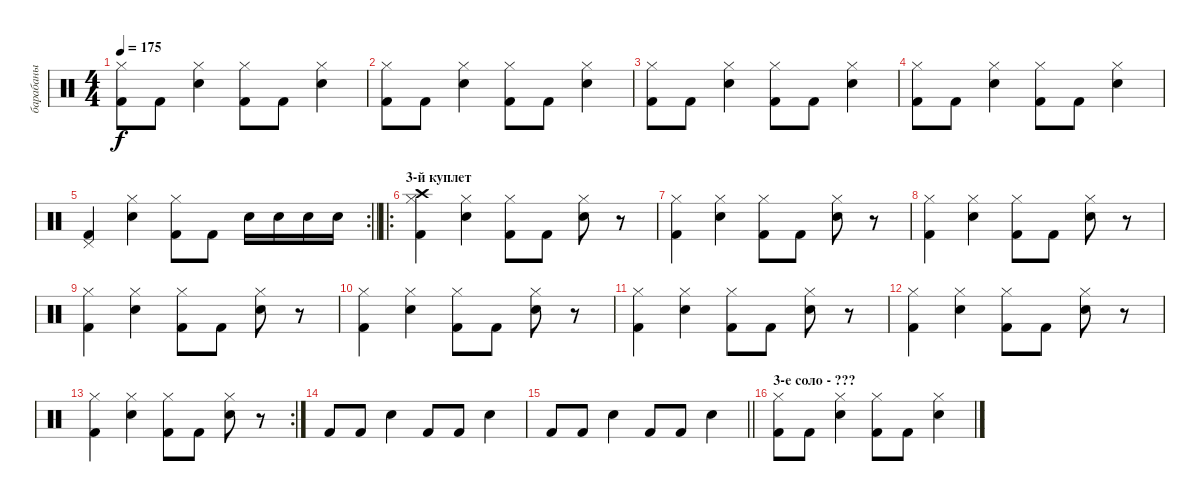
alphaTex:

\track ("барабаны" "барабаны") {instrument percussion}
\staff {score}
\articulation defaults
\ts (4 4)
\tempo 175
\clef neutral
\ks c
("Hi-Hat (closed)" "Kick (hit) 2").8{dy f} "Kick (hit) 2".8 ("Hi-Hat (closed)" "Snare (hit) 2").4 ("Hi-Hat (closed)" "Kick (hit) 2").8 "Kick (hit) 2".8 ("Hi-Hat (closed)" "Snare (hit) 2").4 |
("Hi-Hat (closed)" "Kick (hit) 2").8 "Kick (hit) 2".8 ("Hi-Hat (closed)" "Snare (hit) 2").4 ("Hi-Hat (closed)" "Kick (hit) 2").8 "Kick (hit) 2".8 ("Hi-Hat (closed)" "Snare (hit) 2").4 |
("Hi-Hat (closed)" "Kick (hit) 2").8 "Kick (hit) 2".8 ("Hi-Hat (closed)" "Snare (hit) 2").4 ("Hi-Hat (closed)" "Kick (hit) 2").8 "Kick (hit) 2".8 ("Hi-Hat (closed)" "Snare (hit) 2").4 |
("Hi-Hat (closed)" "Kick (hit) 2").8 "Kick (hit) 2".8 ("Hi-Hat (closed)" "Snare (hit) 2").4 ("Hi-Hat (closed)" "Kick (hit) 2").8 "Kick (hit) 2".8 ("Hi-Hat (closed)" "Snare (hit) 2").4 |
\rc 2
\barLineRight lightlight
("Pedal Hi-Hat (hit)" "Kick (hit) 2").4 ("Hi-Hat (closed)" "Snare (hit) 2").4 ("Hi-Hat (closed)" "Kick (hit) 2").8 "Kick (hit) 2".8 "Snare (hit) 2".16 "Snare (hit) 2".16 "Snare (hit) 2".16 "Snare (hit) 2".16 |
\ro
\section ("" "3-й куплет")
("Crash high (hit)" "Hi-Hat (closed)" "Kick (hit) 2").4 ("Hi-Hat (closed)" "Snare (hit) 2").4 ("Hi-Hat (closed)" "Kick (hit) 2").8 "Kick (hit) 2".8 ("Hi-Hat (closed)" "Snare (hit) 2").8 r.8 |
("Hi-Hat (closed)" "Kick (hit) 2").4 ("Hi-Hat (closed)" "Snare (hit) 2").4 ("Hi-Hat (closed)" "Kick (hit) 2").8 "Kick (hit) 2".8 ("Hi-Hat (closed)" "Snare (hit) 2").8 r.8 |
("Hi-Hat (closed)" "Kick (hit) 2").4 ("Hi-Hat (closed)" "Snare (hit) 2").4 ("Hi-Hat (closed)" "Kick (hit) 2").8 "Kick (hit) 2".8 ("Hi-Hat (closed)" "Snare (hit) 2").8 r.8 |
("Hi-Hat (closed)" "Kick (hit) 2").4 ("Hi-Hat (closed)" "Snare (hit) 2").4 ("Hi-Hat (closed)" "Kick (hit) 2").8 "Kick (hit) 2".8 ("Hi-Hat (closed)" "Snare (hit) 2").8 r.8 |
("Hi-Hat (closed)" "Kick (hit) 2").4 ("Hi-Hat (closed)" "Snare (hit) 2").4 ("Hi-Hat (closed)" "Kick (hit) 2").8 "Kick (hit) 2".8 ("Hi-Hat (closed)" "Snare (hit) 2").8 r.8 |
("Hi-Hat (closed)" "Kick (hit) 2").4 ("Hi-Hat (closed)" "Snare (hit) 2").4 ("Hi-Hat (closed)" "Kick (hit) 2").8 "Kick (hit) 2".8 ("Hi-Hat (closed)" "Snare (hit) 2").8 r.8 |
("Hi-Hat (closed)" "Kick (hit) 2").4 ("Hi-Hat (closed)" "Snare (hit) 2").4 ("Hi-Hat (closed)" "Kick (hit) 2").8 "Kick (hit) 2".8 ("Hi-Hat (closed)" "Snare (hit) 2").8 r.8 |
\rc 2
("Hi-Hat (closed)" "Kick (hit) 2").4 ("Hi-Hat (closed)" "Snare (hit) 2").4 ("Hi-Hat (closed)" "Kick (hit) 2").8 "Kick (hit) 2".8 ("Hi-Hat (closed)" "Snare (hit) 2").8 r.8 |
"Kick (hit) 2".8 "Kick (hit) 2".8 "Snare (hit) 2".4 "Kick (hit) 2".8 "Kick (hit) 2".8 "Snare (hit) 2".4 |
\barLineRight lightlight "Kick (hit) 2".8 "Kick (hit) 2".8 "Snare (hit) 2".4 "Kick (hit) 2".8 "Kick (hit) 2".8 "Snare (hit) 2".4
|
\section ("" "3-е соло - ???")
("Hi-Hat (closed)" "Kick (hit) 2").8 "Kick (hit) 2".8 ("Hi-Hat (closed)" "Snare (hit) 2").4 ("Hi-Hat (closed)" "Kick (hit) 2").8 "Kick (hit) 2".8 ("Hi-Hat (closed)" "Snare (hit) 2").4
